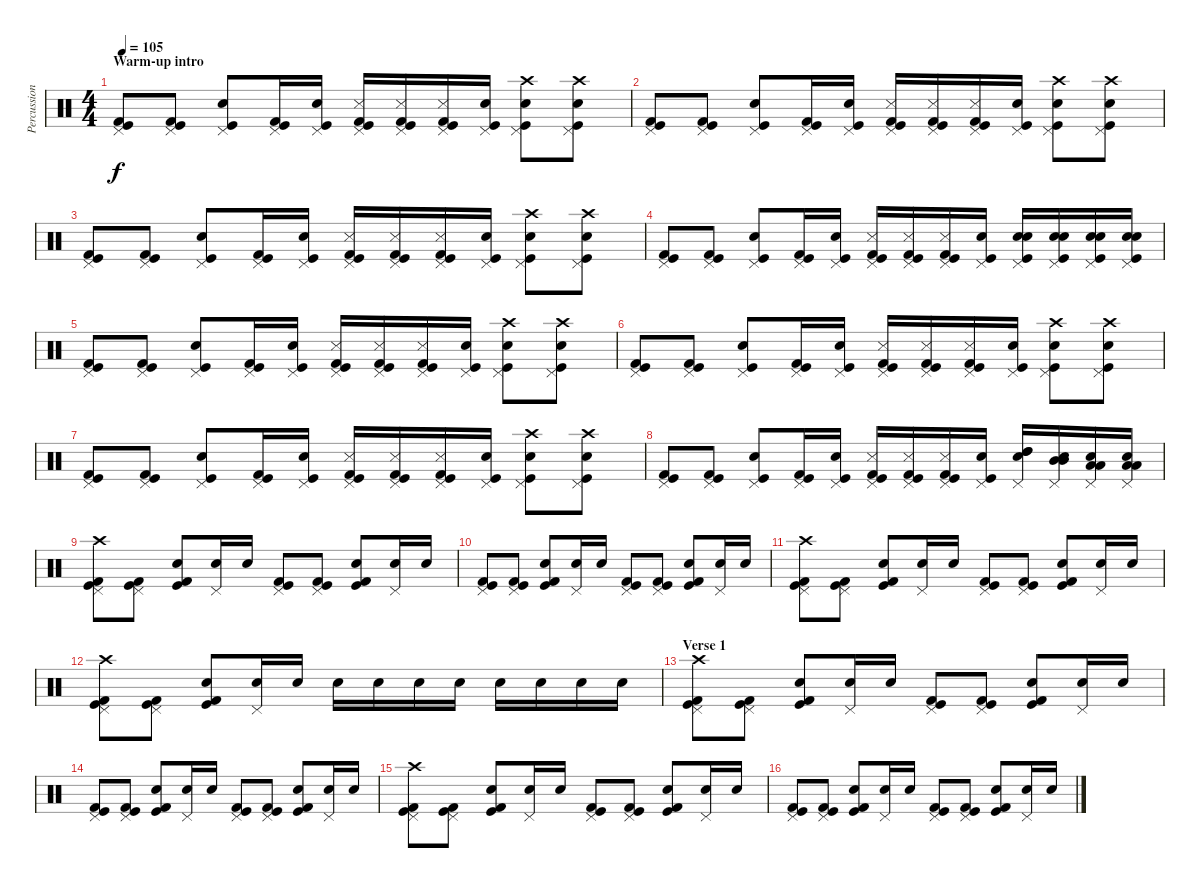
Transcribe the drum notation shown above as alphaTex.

\track ("Percussion" "Percussion") {instrument percussion}
\staff {score}
\articulation defaults
\ts (4 4)
\section ("" "Warm-up intro")
\tempo 105
\clef neutral
\ks c
("Kick (hit)" "Kick (hit) 2" "Pedal Hi-Hat (hit)").8{dy f} ("Kick (hit)" "Kick (hit) 2" "Pedal Hi-Hat (hit)").8 ("Kick (hit)" "Electric Snare (hit)" "Pedal Hi-Hat (hit)").8 ("Kick (hit)" "Kick (hit) 2" "Pedal Hi-Hat (hit)").16 ("Kick (hit)" "Electric Snare (hit)" "Pedal Hi-Hat (hit)").16 ("Kick (hit)" "Kick (hit) 2" "Snare (side stick) 3" "Pedal Hi-Hat (hit)").16 ("Kick (hit)" "Kick (hit) 2" "Snare (side stick) 3" "Pedal Hi-Hat (hit)").16 ("Kick (hit)" "Kick (hit) 2" "Snare (side stick) 3" "Pedal Hi-Hat (hit)").16 ("Kick (hit)" "Electric Snare (hit)" "Pedal Hi-Hat (hit)").16 ("Kick (hit)" "Pedal Hi-Hat (hit)" "Electric Snare (hit)" "Crash high (hit)").8 ("Kick (hit)" "Pedal Hi-Hat (hit)" "Electric Snare (hit)" "Crash high (hit)").8 |
("Kick (hit)" "Kick (hit) 2" "Pedal Hi-Hat (hit)").8 ("Kick (hit)" "Kick (hit) 2" "Pedal Hi-Hat (hit)").8 ("Kick (hit)" "Electric Snare (hit)" "Pedal Hi-Hat (hit)").8 ("Kick (hit)" "Kick (hit) 2" "Pedal Hi-Hat (hit)").16 ("Kick (hit)" "Electric Snare (hit)" "Pedal Hi-Hat (hit)").16 ("Kick (hit)" "Kick (hit) 2" "Snare (side stick) 3" "Pedal Hi-Hat (hit)").16 ("Kick (hit)" "Kick (hit) 2" "Snare (side stick) 3" "Pedal Hi-Hat (hit)").16 ("Kick (hit)" "Kick (hit) 2" "Snare (side stick) 3" "Pedal Hi-Hat (hit)").16 ("Kick (hit)" "Electric Snare (hit)" "Pedal Hi-Hat (hit)").16 ("Kick (hit)" "Pedal Hi-Hat (hit)" "Electric Snare (hit)" "Crash high (hit)").8 ("Kick (hit)" "Pedal Hi-Hat (hit)" "Electric Snare (hit)" "Crash high (hit)").8 |
("Kick (hit)" "Kick (hit) 2" "Pedal Hi-Hat (hit)").8 ("Kick (hit)" "Kick (hit) 2" "Pedal Hi-Hat (hit)").8 ("Kick (hit)" "Electric Snare (hit)" "Pedal Hi-Hat (hit)").8 ("Kick (hit)" "Kick (hit) 2" "Pedal Hi-Hat (hit)").16 ("Kick (hit)" "Electric Snare (hit)" "Pedal Hi-Hat (hit)").16 ("Kick (hit)" "Kick (hit) 2" "Snare (side stick) 3" "Pedal Hi-Hat (hit)").16 ("Kick (hit)" "Kick (hit) 2" "Snare (side stick) 3" "Pedal Hi-Hat (hit)").16 ("Kick (hit)" "Kick (hit) 2" "Snare (side stick) 3" "Pedal Hi-Hat (hit)").16 ("Kick (hit)" "Electric Snare (hit)" "Pedal Hi-Hat (hit)").16 ("Kick (hit)" "Pedal Hi-Hat (hit)" "Electric Snare (hit)" "Crash high (hit)").8 ("Kick (hit)" "Pedal Hi-Hat (hit)" "Electric Snare (hit)" "Crash high (hit)").8 |
("Kick (hit)" "Kick (hit) 2" "Pedal Hi-Hat (hit)").8 ("Kick (hit)" "Kick (hit) 2" "Pedal Hi-Hat (hit)").8 ("Kick (hit)" "Electric Snare (hit)" "Pedal Hi-Hat (hit)").8 ("Kick (hit)" "Kick (hit) 2" "Pedal Hi-Hat (hit)").16 ("Kick (hit)" "Electric Snare (hit)" "Pedal Hi-Hat (hit)").16 ("Kick (hit)" "Kick (hit) 2" "Snare (side stick) 3" "Pedal Hi-Hat (hit)").16 ("Kick (hit)" "Kick (hit) 2" "Snare (side stick) 3" "Pedal Hi-Hat (hit)").16 ("Kick (hit)" "Kick (hit) 2" "Snare (side stick) 3" "Pedal Hi-Hat (hit)").16 ("Kick (hit)" "Electric Snare (hit)" "Pedal Hi-Hat (hit)").16 ("Kick (hit)" "Pedal Hi-Hat (hit)" "Electric Snare (hit)" "Snare (hit) 2").16 ("Kick (hit)" "Pedal Hi-Hat (hit)" "Electric Snare (hit)" "Snare (hit) 2").16 ("Kick (hit)" "Pedal Hi-Hat (hit)" "Electric Snare (hit)" "Snare (hit) 2").16 ("Kick (hit)" "Pedal Hi-Hat (hit)" "Electric Snare (hit)" "Snare (hit) 2").16 |
("Kick (hit)" "Kick (hit) 2" "Pedal Hi-Hat (hit)").8 ("Kick (hit)" "Kick (hit) 2" "Pedal Hi-Hat (hit)").8 ("Kick (hit)" "Electric Snare (hit)" "Pedal Hi-Hat (hit)").8 ("Kick (hit)" "Kick (hit) 2" "Pedal Hi-Hat (hit)").16 ("Kick (hit)" "Electric Snare (hit)" "Pedal Hi-Hat (hit)").16 ("Kick (hit)" "Kick (hit) 2" "Snare (side stick) 3" "Pedal Hi-Hat (hit)").16 ("Kick (hit)" "Kick (hit) 2" "Snare (side stick) 3" "Pedal Hi-Hat (hit)").16 ("Kick (hit)" "Kick (hit) 2" "Snare (side stick) 3" "Pedal Hi-Hat (hit)").16 ("Kick (hit)" "Electric Snare (hit)" "Pedal Hi-Hat (hit)").16 ("Kick (hit)" "Pedal Hi-Hat (hit)" "Electric Snare (hit)" "Crash high (hit)").8 ("Kick (hit)" "Pedal Hi-Hat (hit)" "Electric Snare (hit)" "Crash high (hit)").8 |
("Kick (hit)" "Kick (hit) 2" "Pedal Hi-Hat (hit)").8 ("Kick (hit)" "Kick (hit) 2" "Pedal Hi-Hat (hit)").8 ("Kick (hit)" "Electric Snare (hit)" "Pedal Hi-Hat (hit)").8 ("Kick (hit)" "Kick (hit) 2" "Pedal Hi-Hat (hit)").16 ("Kick (hit)" "Electric Snare (hit)" "Pedal Hi-Hat (hit)").16 ("Kick (hit)" "Kick (hit) 2" "Snare (side stick) 3" "Pedal Hi-Hat (hit)").16 ("Kick (hit)" "Kick (hit) 2" "Snare (side stick) 3" "Pedal Hi-Hat (hit)").16 ("Kick (hit)" "Kick (hit) 2" "Snare (side stick) 3" "Pedal Hi-Hat (hit)").16 ("Kick (hit)" "Electric Snare (hit)" "Pedal Hi-Hat (hit)").16 ("Kick (hit)" "Pedal Hi-Hat (hit)" "Electric Snare (hit)" "Crash high (hit)").8 ("Kick (hit)" "Pedal Hi-Hat (hit)" "Electric Snare (hit)" "Crash high (hit)").8 |
("Kick (hit)" "Kick (hit) 2" "Pedal Hi-Hat (hit)").8 ("Kick (hit)" "Kick (hit) 2" "Pedal Hi-Hat (hit)").8 ("Kick (hit)" "Electric Snare (hit)" "Pedal Hi-Hat (hit)").8 ("Kick (hit)" "Kick (hit) 2" "Pedal Hi-Hat (hit)").16 ("Kick (hit)" "Electric Snare (hit)" "Pedal Hi-Hat (hit)").16 ("Kick (hit)" "Kick (hit) 2" "Snare (side stick) 3" "Pedal Hi-Hat (hit)").16 ("Kick (hit)" "Kick (hit) 2" "Snare (side stick) 3" "Pedal Hi-Hat (hit)").16 ("Kick (hit)" "Kick (hit) 2" "Snare (side stick) 3" "Pedal Hi-Hat (hit)").16 ("Kick (hit)" "Electric Snare (hit)" "Pedal Hi-Hat (hit)").16 ("Kick (hit)" "Pedal Hi-Hat (hit)" "Electric Snare (hit)" "Crash high (hit)").8 ("Kick (hit)" "Pedal Hi-Hat (hit)" "Electric Snare (hit)" "Crash high (hit)").8 |
("Kick (hit)" "Kick (hit) 2" "Pedal Hi-Hat (hit)").8 ("Kick (hit)" "Kick (hit) 2" "Pedal Hi-Hat (hit)").8 ("Kick (hit)" "Electric Snare (hit)" "Pedal Hi-Hat (hit)").8 ("Kick (hit)" "Kick (hit) 2" "Pedal Hi-Hat (hit)").16 ("Kick (hit)" "Electric Snare (hit)" "Pedal Hi-Hat (hit)").16 ("Kick (hit)" "Kick (hit) 2" "Snare (side stick) 3" "Pedal Hi-Hat (hit)").16 ("Kick (hit)" "Kick (hit) 2" "Snare (side stick) 3" "Pedal Hi-Hat (hit)").16 ("Kick (hit)" "Kick (hit) 2" "Snare (side stick) 3" "Pedal Hi-Hat (hit)").16 ("Kick (hit)" "Electric Snare (hit)" "Pedal Hi-Hat (hit)").16 ("High Tom (hit)" "Pedal Hi-Hat (hit)" "High Tom (hit)" "Snare (hit) 2").16 ("Mid Tom (hit)" "Pedal Hi-Hat (hit)" "Mid Tom (hit)" "Snare (hit) 2").16 ("Low Tom (hit)" "Pedal Hi-Hat (hit)" "Low Tom (hit)" "Snare (hit) 2").16 ("Low Floor Tom (hit)" "Pedal Hi-Hat (hit)" "Low Floor Tom (hit)" "Snare (hit) 2").16 |
("Kick (hit) 2" "Kick (hit)" "Pedal Hi-Hat (hit)" "Crash high (hit)").8 ("Kick (hit) 2" "Kick (hit)" "Pedal Hi-Hat (hit)").8 ("Kick (hit)" "Kick (hit) 2" "Electric Snare (hit)").8 ("Pedal Hi-Hat (hit)" "Electric Snare (hit)").16 "Snare (hit) 2".16 ("Kick (hit) 2" "Kick (hit)" "Pedal Hi-Hat (hit)").8 ("Kick (hit) 2" "Kick (hit)" "Pedal Hi-Hat (hit)").8 ("Kick (hit)" "Kick (hit) 2" "Electric Snare (hit)").8 ("Pedal Hi-Hat (hit)" "Electric Snare (hit)").16 "Snare (hit) 2".16 |
("Kick (hit) 2" "Kick (hit)" "Pedal Hi-Hat (hit)").8 ("Kick (hit) 2" "Kick (hit)" "Pedal Hi-Hat (hit)").8 ("Kick (hit)" "Kick (hit) 2" "Electric Snare (hit)").8 ("Pedal Hi-Hat (hit)" "Electric Snare (hit)").16 "Snare (hit) 2".16 ("Kick (hit) 2" "Kick (hit)" "Pedal Hi-Hat (hit)").8 ("Kick (hit) 2" "Kick (hit)" "Pedal Hi-Hat (hit)").8 ("Kick (hit)" "Kick (hit) 2" "Electric Snare (hit)").8 ("Pedal Hi-Hat (hit)" "Electric Snare (hit)").16 "Snare (hit) 2".16 |
("Kick (hit) 2" "Kick (hit)" "Pedal Hi-Hat (hit)" "Crash high (hit)").8 ("Kick (hit) 2" "Kick (hit)" "Pedal Hi-Hat (hit)").8 ("Kick (hit)" "Kick (hit) 2" "Electric Snare (hit)").8 ("Pedal Hi-Hat (hit)" "Electric Snare (hit)").16 "Snare (hit) 2".16 ("Kick (hit) 2" "Kick (hit)" "Pedal Hi-Hat (hit)").8 ("Kick (hit) 2" "Kick (hit)" "Pedal Hi-Hat (hit)").8 ("Kick (hit)" "Kick (hit) 2" "Electric Snare (hit)").8 ("Pedal Hi-Hat (hit)" "Electric Snare (hit)").16 "Snare (hit) 2".16 |
("Kick (hit) 2" "Kick (hit)" "Pedal Hi-Hat (hit)" "Crash high (hit)").8 ("Kick (hit) 2" "Kick (hit)" "Pedal Hi-Hat (hit)").8 ("Kick (hit)" "Kick (hit) 2" "Electric Snare (hit)").8 ("Pedal Hi-Hat (hit)" "Electric Snare (hit)").16 "Snare (hit) 2".16 "Electric Snare (hit)".16 "Electric Snare (hit)".16 "Electric Snare (hit)".16 "Electric Snare (hit)".16 "Snare (hit) 2".16 "Snare (hit) 2".16 "Snare (hit) 2".16 "Snare (hit) 2".16 |
\section ("" "Verse 1")
("Kick (hit) 2" "Kick (hit)" "Pedal Hi-Hat (hit)" "Crash high (hit)").8 ("Kick (hit) 2" "Kick (hit)" "Pedal Hi-Hat (hit)").8 ("Kick (hit)" "Kick (hit) 2" "Electric Snare (hit)").8 ("Pedal Hi-Hat (hit)" "Electric Snare (hit)").16 "Snare (hit) 2".16 ("Kick (hit) 2" "Kick (hit)" "Pedal Hi-Hat (hit)").8 ("Kick (hit) 2" "Kick (hit)" "Pedal Hi-Hat (hit)").8 ("Kick (hit)" "Kick (hit) 2" "Electric Snare (hit)").8 ("Pedal Hi-Hat (hit)" "Electric Snare (hit)").16 "Snare (hit) 2".16 |
("Kick (hit) 2" "Kick (hit)" "Pedal Hi-Hat (hit)").8 ("Kick (hit) 2" "Kick (hit)" "Pedal Hi-Hat (hit)").8 ("Kick (hit)" "Kick (hit) 2" "Electric Snare (hit)").8 ("Pedal Hi-Hat (hit)" "Electric Snare (hit)").16 "Snare (hit) 2".16 ("Kick (hit) 2" "Kick (hit)" "Pedal Hi-Hat (hit)").8 ("Kick (hit) 2" "Kick (hit)" "Pedal Hi-Hat (hit)").8 ("Kick (hit)" "Kick (hit) 2" "Electric Snare (hit)").8 ("Pedal Hi-Hat (hit)" "Electric Snare (hit)").16 "Snare (hit) 2".16 |
("Kick (hit) 2" "Kick (hit)" "Pedal Hi-Hat (hit)" "Crash high (hit)").8 ("Kick (hit) 2" "Kick (hit)" "Pedal Hi-Hat (hit)").8 ("Kick (hit)" "Kick (hit) 2" "Electric Snare (hit)").8 ("Pedal Hi-Hat (hit)" "Electric Snare (hit)").16 "Snare (hit) 2".16 ("Kick (hit) 2" "Kick (hit)" "Pedal Hi-Hat (hit)").8 ("Kick (hit) 2" "Kick (hit)" "Pedal Hi-Hat (hit)").8 ("Kick (hit)" "Kick (hit) 2" "Electric Snare (hit)").8 ("Pedal Hi-Hat (hit)" "Electric Snare (hit)").16 "Snare (hit) 2".16 |
("Kick (hit) 2" "Kick (hit)" "Pedal Hi-Hat (hit)").8 ("Kick (hit) 2" "Kick (hit)" "Pedal Hi-Hat (hit)").8 ("Kick (hit)" "Kick (hit) 2" "Electric Snare (hit)").8 ("Pedal Hi-Hat (hit)" "Electric Snare (hit)").16 "Snare (hit) 2".16 ("Kick (hit) 2" "Kick (hit)" "Pedal Hi-Hat (hit)").8 ("Kick (hit) 2" "Kick (hit)" "Pedal Hi-Hat (hit)").8 ("Kick (hit)" "Kick (hit) 2" "Electric Snare (hit)").8 ("Pedal Hi-Hat (hit)" "Electric Snare (hit)").16 "Snare (hit) 2".16
